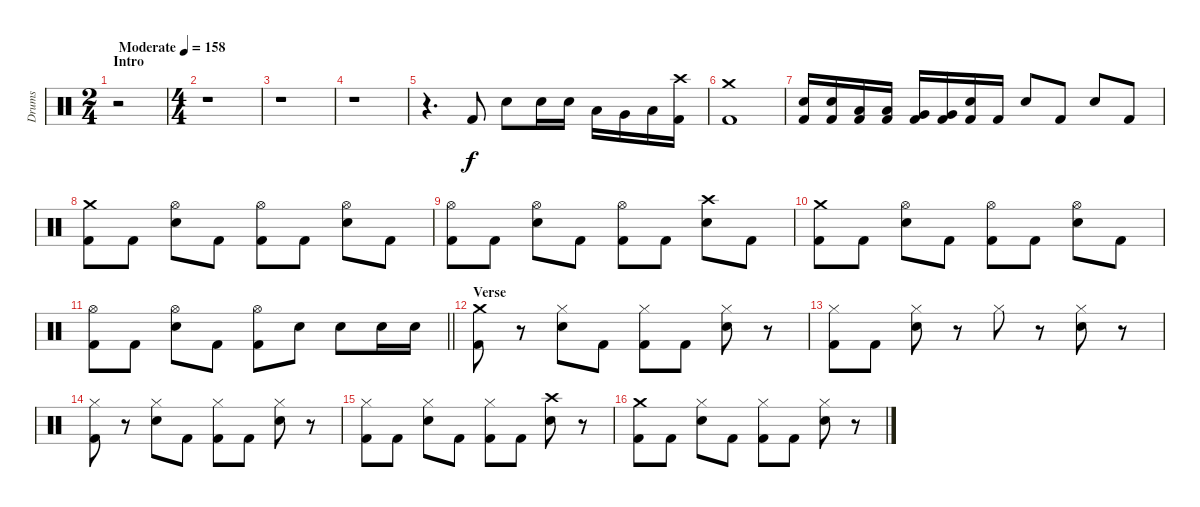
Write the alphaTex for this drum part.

\track ("Drums" "Drums") {instrument percussion}
\staff {score}
\articulation defaults
\ts (2 4)
\section ("" "Intro")
\tempo (158 "Moderate")
\clef neutral
\ks c
r.2{dy f} |
\ts (4 4)
r.1 |
r.1 |
r.1 |
r.4{d} "Kick (hit) 2".8 "Electric Snare (hit)".8 "Electric Snare (hit)".16 "Electric Snare (hit)".16 "Low Tom (hit)".16 "Very Low Tom (hit)".16 "Low Floor Tom (hit)".16 ("Crash high (hit)" "Kick (hit) 2").16 |
("Crash medium (hit)" "Kick (hit) 2").1 |
("Electric Snare (hit)" "Kick (hit) 2").16 ("Electric Snare (hit)" "Kick (hit) 2").16 ("Low Tom (hit)" "Kick (hit) 2").16 ("Low Tom (hit)" "Kick (hit) 2").16 ("Very Low Tom (hit)" "Kick (hit) 2").16 ("Very Low Tom (hit)" "Kick (hit) 2").16 ("Electric Snare (hit)" "Kick (hit) 2").16 "Kick (hit) 2".16 "Electric Snare (hit)".8 "Kick (hit) 2".8 "Electric Snare (hit)".8 "Kick (hit) 2".8 |
("Crash medium (hit)" "Kick (hit) 2").8 "Kick (hit) 2".8 ("Hi-Hat (open)" "Electric Snare (hit)").8 "Kick (hit) 2".8 ("Hi-Hat (open)" "Kick (hit) 2").8 "Kick (hit) 2".8 ("Hi-Hat (open)" "Electric Snare (hit)").8 "Kick (hit) 2".8 |
("Hi-Hat (open)" "Kick (hit) 2").8 "Kick (hit) 2".8 ("Hi-Hat (open)" "Electric Snare (hit)").8 "Kick (hit) 2".8 ("Hi-Hat (open)" "Kick (hit) 2").8 "Kick (hit) 2".8 ("Crash high (hit)" "Electric Snare (hit)").8 "Kick (hit) 2".8 |
("Crash medium (hit)" "Kick (hit) 2").8 "Kick (hit) 2".8 ("Hi-Hat (open)" "Electric Snare (hit)").8 "Kick (hit) 2".8 ("Hi-Hat (open)" "Kick (hit) 2").8 "Kick (hit) 2".8 ("Hi-Hat (open)" "Electric Snare (hit)").8 "Kick (hit) 2".8 |
\barLineRight lightlight
("Hi-Hat (open)" "Kick (hit) 2").8 "Kick (hit) 2".8 ("Hi-Hat (open)" "Electric Snare (hit)").8 "Kick (hit) 2".8 ("Hi-Hat (open)" "Kick (hit) 2").8 "Electric Snare (hit)".8 "Electric Snare (hit)".8 "Electric Snare (hit)".16 "Electric Snare (hit)".16 |
\section ("" "Verse")
("Crash medium (hit)" "Kick (hit) 2").8 r.8 ("Hi-Hat (closed)" "Electric Snare (hit)").8 "Kick (hit) 2".8 ("Hi-Hat (closed)" "Kick (hit) 2").8 "Kick (hit) 2".8 ("Hi-Hat (closed)" "Electric Snare (hit)").8 r.8 |
("Hi-Hat (closed)" "Kick (hit) 2").8 "Kick (hit) 2".8 ("Hi-Hat (closed)" "Electric Snare (hit)").8 r.8 "Hi-Hat (closed)".8 r.8 ("Hi-Hat (closed)" "Electric Snare (hit)").8 r.8 |
("Hi-Hat (closed)" "Kick (hit) 2").8 r.8 ("Hi-Hat (closed)" "Electric Snare (hit)").8 "Kick (hit) 2".8 ("Hi-Hat (closed)" "Kick (hit) 2").8 "Kick (hit) 2".8 ("Hi-Hat (closed)" "Electric Snare (hit)").8 r.8 |
("Hi-Hat (closed)" "Kick (hit) 2").8 "Kick (hit) 2".8 ("Hi-Hat (closed)" "Electric Snare (hit)").8 "Kick (hit) 2".8 ("Hi-Hat (closed)" "Kick (hit) 2").8 "Kick (hit) 2".8 ("Crash high (hit)" "Electric Snare (hit)").8 r.8 |
("Crash medium (hit)" "Kick (hit) 2").8 "Kick (hit) 2".8 ("Hi-Hat (closed)" "Electric Snare (hit)").8 "Kick (hit) 2".8 ("Hi-Hat (closed)" "Kick (hit) 2").8 "Kick (hit) 2".8 ("Hi-Hat (closed)" "Electric Snare (hit)").8 r.8
